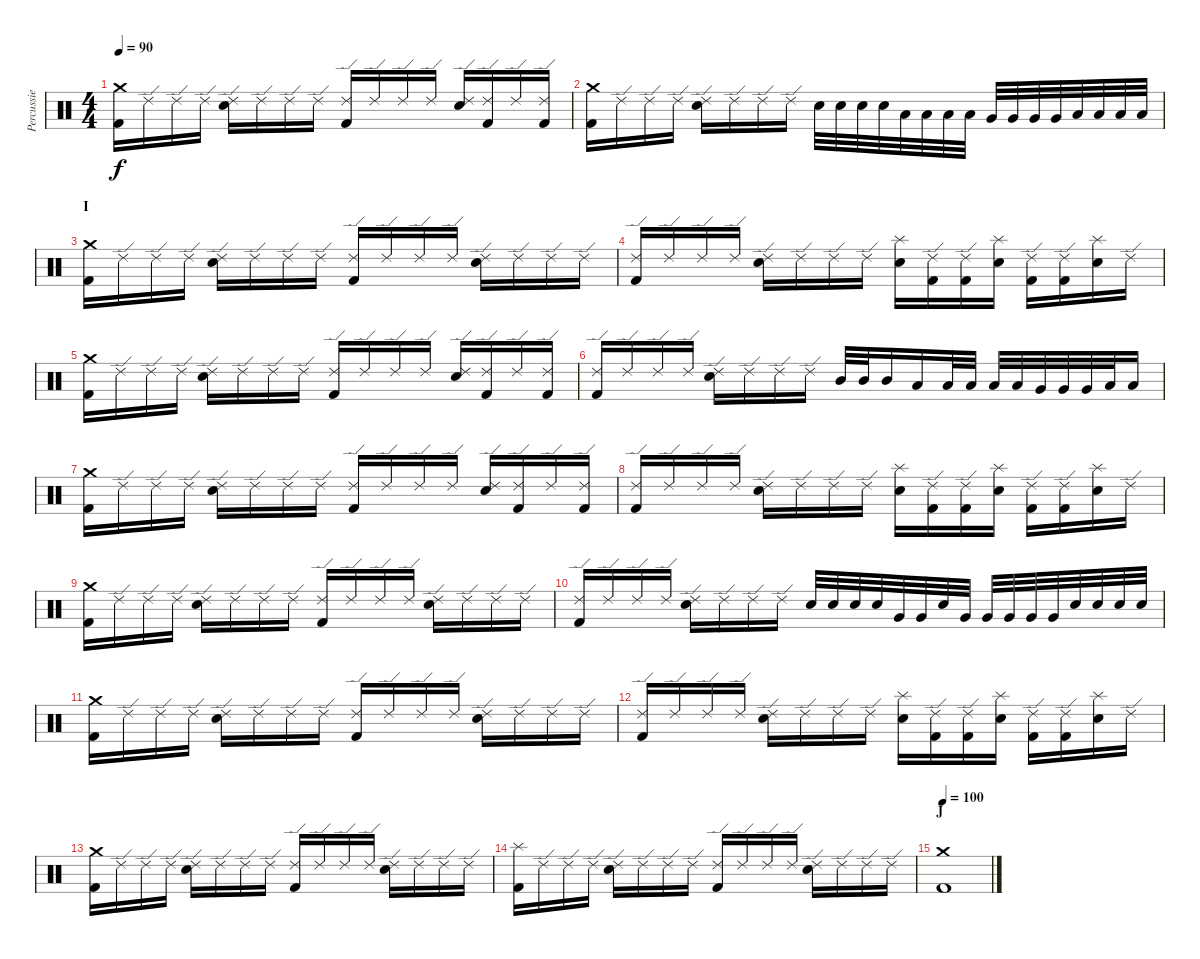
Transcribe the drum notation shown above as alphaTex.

\track ("Percussie" "Percussie") {instrument percussion}
\staff {score}
\articulation defaults
\ts (4 4)
\tempo 90
\clef neutral
\ks c
("Crash medium (hit)" "Kick (hit) 2").16{dy f} "Ride (edge) 2".16 "Ride (edge) 2".16 "Ride (edge) 2".16 ("Ride (edge) 2" "Electric Snare (hit)").16 "Ride (edge) 2".16 "Ride (edge) 2".16 "Ride (edge) 2".16 ("Ride (edge) 2" "Kick (hit) 2").16 "Ride (edge) 2".16 "Ride (edge) 2".16 "Ride (edge) 2".16 ("Ride (edge) 2" "Electric Snare (hit)").16 ("Ride (edge) 2" "Kick (hit) 2").16 "Ride (edge) 2".16 ("Ride (edge) 2" "Kick (hit) 2").16 |
("Crash medium (hit)" "Kick (hit) 2").16 "Ride (edge) 2".16 "Ride (edge) 2".16 "Ride (edge) 2".16 ("Ride (edge) 2" "Electric Snare (hit)").16 "Ride (edge) 2".16 "Ride (edge) 2".16 "Ride (edge) 2".16 "Electric Snare (hit)".32 "Electric Snare (hit)".32 "Electric Snare (hit)".32 "Electric Snare (hit)".32 "Low Tom (hit)".32 "Low Tom (hit)".32 "Low Tom (hit)".32 "Low Tom (hit)".32 "Very Low Tom (hit)".32 "Very Low Tom (hit)".32 "Very Low Tom (hit)".32 "Very Low Tom (hit)".32 "Low Floor Tom (hit)".32 "Low Floor Tom (hit)".32 "Low Floor Tom (hit)".32 "Low Floor Tom (hit)".32 |
\section ("" "I")
("Crash medium (hit)" "Kick (hit) 2").16 "Ride (edge) 2".16 "Ride (edge) 2".16 "Ride (edge) 2".16 ("Ride (edge) 2" "Electric Snare (hit)").16 "Ride (edge) 2".16 "Ride (edge) 2".16 "Ride (edge) 2".16 ("Ride (edge) 2" "Kick (hit) 2").16 "Ride (edge) 2".16 "Ride (edge) 2".16 "Ride (edge) 2".16 ("Ride (edge) 2" "Electric Snare (hit)").16 "Ride (edge) 2".16 "Ride (edge) 2".16 "Ride (edge) 2".16 |
("Ride (edge) 2" "Kick (hit) 2").16 "Ride (edge) 2".16 "Ride (edge) 2".16 "Ride (edge) 2".16 ("Ride (edge) 2" "Electric Snare (hit)").16 "Ride (edge) 2".16 "Ride (edge) 2".16 "Ride (edge) 2".16 ("Splash (hit)" "Electric Snare (hit)").16 ("Ride (edge) 2" "Kick (hit) 2").16 ("Ride (edge) 2" "Kick (hit) 2").16 ("Splash (hit)" "Electric Snare (hit)").16 ("Ride (edge) 2" "Kick (hit) 2").16 ("Ride (edge) 2" "Kick (hit) 2").16 ("Splash (hit)" "Electric Snare (hit)").16 "Ride (edge) 2".16 |
("Crash medium (hit)" "Kick (hit) 2").16 "Ride (edge) 2".16 "Ride (edge) 2".16 "Ride (edge) 2".16 ("Ride (edge) 2" "Electric Snare (hit)").16 "Ride (edge) 2".16 "Ride (edge) 2".16 "Ride (edge) 2".16 ("Ride (edge) 2" "Kick (hit) 2").16 "Ride (edge) 2".16 "Ride (edge) 2".16 "Ride (edge) 2".16 ("Ride (edge) 2" "Electric Snare (hit)").16 ("Ride (edge) 2" "Kick (hit) 2").16 "Ride (edge) 2".16 ("Ride (edge) 2" "Kick (hit) 2").16 |
("Ride (edge) 2" "Kick (hit) 2").16 "Ride (edge) 2".16 "Ride (edge) 2".16 "Ride (edge) 2".16 ("Ride (edge) 2" "Electric Snare (hit)").16 "Ride (edge) 2".16 "Ride (edge) 2".16 "Ride (edge) 2".16 "Mid Tom (hit)".32 "Mid Tom (hit)".32 "Mid Tom (hit)".16 "Low Tom (hit)".16 "Low Tom (hit)".32 "Low Tom (hit)".32 "Low Tom (hit)".32 "Low Tom (hit)".32 "Very Low Tom (hit)".32 "Very Low Tom (hit)".32 "Very Low Tom (hit)".32 "Low Floor Tom (hit)".32 "Low Floor Tom (hit)".16 |
("Crash medium (hit)" "Kick (hit) 2").16 "Ride (edge) 2".16 "Ride (edge) 2".16 "Ride (edge) 2".16 ("Ride (edge) 2" "Electric Snare (hit)").16 "Ride (edge) 2".16 "Ride (edge) 2".16 "Ride (edge) 2".16 ("Ride (edge) 2" "Kick (hit) 2").16 "Ride (edge) 2".16 "Ride (edge) 2".16 "Ride (edge) 2".16 ("Ride (edge) 2" "Electric Snare (hit)").16 ("Ride (edge) 2" "Kick (hit) 2").16 "Ride (edge) 2".16 ("Ride (edge) 2" "Kick (hit) 2").16 |
("Ride (edge) 2" "Kick (hit) 2").16 "Ride (edge) 2".16 "Ride (edge) 2".16 "Ride (edge) 2".16 ("Ride (edge) 2" "Electric Snare (hit)").16 "Ride (edge) 2".16 "Ride (edge) 2".16 "Ride (edge) 2".16 ("Splash (hit)" "Electric Snare (hit)").16 ("Ride (edge) 2" "Kick (hit) 2").16 ("Ride (edge) 2" "Kick (hit) 2").16 ("Splash (hit)" "Electric Snare (hit)").16 ("Ride (edge) 2" "Kick (hit) 2").16 ("Ride (edge) 2" "Kick (hit) 2").16 ("Splash (hit)" "Electric Snare (hit)").16 "Ride (edge) 2".16 |
("Crash medium (hit)" "Kick (hit) 2").16 "Ride (edge) 2".16 "Ride (edge) 2".16 "Ride (edge) 2".16 ("Ride (edge) 2" "Electric Snare (hit)").16 "Ride (edge) 2".16 "Ride (edge) 2".16 "Ride (edge) 2".16 ("Ride (edge) 2" "Kick (hit) 2").16 "Ride (edge) 2".16 "Ride (edge) 2".16 "Ride (edge) 2".16 ("Ride (edge) 2" "Electric Snare (hit)").16 "Ride (edge) 2".16 "Ride (edge) 2".16 "Ride (edge) 2".16 |
("Ride (edge) 2" "Kick (hit) 2").16 "Ride (edge) 2".16 "Ride (edge) 2".16 "Ride (edge) 2".16 ("Ride (edge) 2" "Electric Snare (hit)").16 "Ride (edge) 2".16 "Ride (edge) 2".16 "Ride (edge) 2".16 "Electric Snare (hit)".32 "Electric Snare (hit)".32 "Electric Snare (hit)".32 "Electric Snare (hit)".32 "Very Low Tom (hit)".32 "Very Low Tom (hit)".32 "Electric Snare (hit)".32 "Very Low Tom (hit)".32 "Very Low Tom (hit)".32 "Very Low Tom (hit)".32 "Very Low Tom (hit)".32 "Very Low Tom (hit)".32 "Electric Snare (hit)".32 "Electric Snare (hit)".32 "Electric Snare (hit)".32 "Electric Snare (hit)".32 |
("Crash medium (hit)" "Kick (hit) 2").16 "Ride (edge) 2".16 "Ride (edge) 2".16 "Ride (edge) 2".16 ("Ride (edge) 2" "Electric Snare (hit)").16 "Ride (edge) 2".16 "Ride (edge) 2".16 "Ride (edge) 2".16 ("Ride (edge) 2" "Kick (hit) 2").16 "Ride (edge) 2".16 "Ride (edge) 2".16 "Ride (edge) 2".16 ("Ride (edge) 2" "Electric Snare (hit)").16 "Ride (edge) 2".16 "Ride (edge) 2".16 "Ride (edge) 2".16 |
("Ride (edge) 2" "Kick (hit) 2").16 "Ride (edge) 2".16 "Ride (edge) 2".16 "Ride (edge) 2".16 ("Ride (edge) 2" "Electric Snare (hit)").16 "Ride (edge) 2".16 "Ride (edge) 2".16 "Ride (edge) 2".16 ("Splash (hit)" "Electric Snare (hit)").16 ("Ride (edge) 2" "Kick (hit) 2").16 ("Ride (edge) 2" "Kick (hit) 2").16 ("Splash (hit)" "Electric Snare (hit)").16 ("Ride (edge) 2" "Kick (hit) 2").16 ("Ride (edge) 2" "Kick (hit) 2").16 ("Splash (hit)" "Electric Snare (hit)").16 "Ride (edge) 2".16 |
("Crash medium (hit)" "Kick (hit) 2").16 "Ride (edge) 2".16 "Ride (edge) 2".16 "Ride (edge) 2".16 ("Ride (edge) 2" "Electric Snare (hit)").16 "Ride (edge) 2".16 "Ride (edge) 2".16 "Ride (edge) 2".16 ("Ride (edge) 2" "Kick (hit) 2").16 "Ride (edge) 2".16 "Ride (edge) 2".16 "Ride (edge) 2".16 ("Ride (edge) 2" "Electric Snare (hit)").16 "Ride (edge) 2".16 "Ride (edge) 2".16 "Ride (edge) 2".16 |
("Splash (hit)" "Kick (hit) 2").16 "Ride (edge) 2".16 "Ride (edge) 2".16 "Ride (edge) 2".16 ("Ride (edge) 2" "Electric Snare (hit)").16 "Ride (edge) 2".16 "Ride (edge) 2".16 "Ride (edge) 2".16 ("Ride (edge) 2" "Kick (hit) 2").16 "Ride (edge) 2".16 "Ride (edge) 2".16 "Ride (edge) 2".16 ("Ride (edge) 2" "Electric Snare (hit)").16 "Ride (edge) 2".16 "Ride (edge) 2".16 "Ride (edge) 2".16 |
\section ("" "J")
\tempo 100
("Crash medium (hit)" "Kick (hit) 2").1
